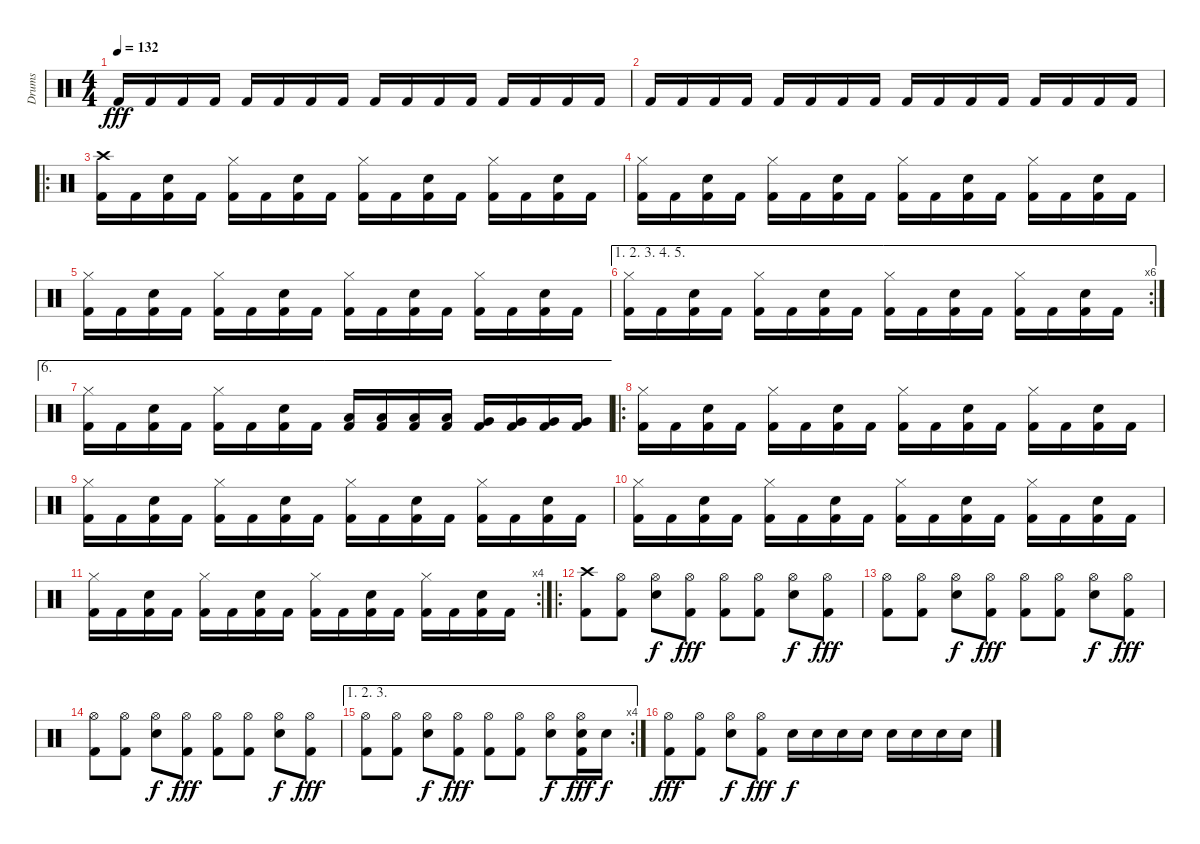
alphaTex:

\track ("Drums" "Drums") {instrument percussion}
\staff {score}
\articulation defaults
\ts (4 4)
\tempo 132
\clef neutral
\ks c "Kick (hit) 2".16{dy fff} "Kick (hit) 2".16 "Kick (hit) 2".16 "Kick (hit) 2".16 "Kick (hit) 2".16 "Kick (hit) 2".16 "Kick (hit) 2".16 "Kick (hit) 2".16 "Kick (hit) 2".16 "Kick (hit) 2".16 "Kick (hit) 2".16 "Kick (hit) 2".16 "Kick (hit) 2".16 "Kick (hit) 2".16 "Kick (hit) 2".16 "Kick (hit) 2".16
|
"Kick (hit) 2".16 "Kick (hit) 2".16 "Kick (hit) 2".16 "Kick (hit) 2".16 "Kick (hit) 2".16 "Kick (hit) 2".16 "Kick (hit) 2".16 "Kick (hit) 2".16 "Kick (hit) 2".16 "Kick (hit) 2".16 "Kick (hit) 2".16 "Kick (hit) 2".16 "Kick (hit) 2".16 "Kick (hit) 2".16 "Kick (hit) 2".16 "Kick (hit) 2".16 |
\ro
("Crash high (hit)" "Kick (hit) 2").16 "Kick (hit) 2".16 ("Snare (hit) 2" "Kick (hit) 2").16 "Kick (hit) 2".16 ("Hi-Hat (closed)" "Kick (hit) 2").16 "Kick (hit) 2".16 ("Snare (hit) 2" "Kick (hit) 2").16 "Kick (hit) 2".16 ("Hi-Hat (closed)" "Kick (hit) 2").16 "Kick (hit) 2".16 ("Snare (hit) 2" "Kick (hit) 2").16 "Kick (hit) 2".16 ("Hi-Hat (closed)" "Kick (hit) 2").16 "Kick (hit) 2".16 ("Snare (hit) 2" "Kick (hit) 2").16 "Kick (hit) 2".16 |
("Hi-Hat (closed)" "Kick (hit) 2").16 "Kick (hit) 2".16 ("Snare (hit) 2" "Kick (hit) 2").16 "Kick (hit) 2".16 ("Hi-Hat (closed)" "Kick (hit) 2").16 "Kick (hit) 2".16 ("Snare (hit) 2" "Kick (hit) 2").16 "Kick (hit) 2".16 ("Hi-Hat (closed)" "Kick (hit) 2").16 "Kick (hit) 2".16 ("Snare (hit) 2" "Kick (hit) 2").16 "Kick (hit) 2".16 ("Hi-Hat (closed)" "Kick (hit) 2").16 "Kick (hit) 2".16 ("Snare (hit) 2" "Kick (hit) 2").16 "Kick (hit) 2".16 |
("Hi-Hat (closed)" "Kick (hit) 2").16 "Kick (hit) 2".16 ("Snare (hit) 2" "Kick (hit) 2").16 "Kick (hit) 2".16 ("Hi-Hat (closed)" "Kick (hit) 2").16 "Kick (hit) 2".16 ("Snare (hit) 2" "Kick (hit) 2").16 "Kick (hit) 2".16 ("Hi-Hat (closed)" "Kick (hit) 2").16 "Kick (hit) 2".16 ("Snare (hit) 2" "Kick (hit) 2").16 "Kick (hit) 2".16 ("Hi-Hat (closed)" "Kick (hit) 2").16 "Kick (hit) 2".16 ("Snare (hit) 2" "Kick (hit) 2").16 "Kick (hit) 2".16 |
\ae (1 2 3 4 5)
\rc 6
("Hi-Hat (closed)" "Kick (hit) 2").16 "Kick (hit) 2".16 ("Snare (hit) 2" "Kick (hit) 2").16 "Kick (hit) 2".16 ("Hi-Hat (closed)" "Kick (hit) 2").16 "Kick (hit) 2".16 ("Snare (hit) 2" "Kick (hit) 2").16 "Kick (hit) 2".16 ("Hi-Hat (closed)" "Kick (hit) 2").16 "Kick (hit) 2".16 ("Snare (hit) 2" "Kick (hit) 2").16 "Kick (hit) 2".16 ("Hi-Hat (closed)" "Kick (hit) 2").16 "Kick (hit) 2".16 ("Snare (hit) 2" "Kick (hit) 2").16 "Kick (hit) 2".16 |
\ae 6
("Hi-Hat (closed)" "Kick (hit) 2").16 "Kick (hit) 2".16 ("Snare (hit) 2" "Kick (hit) 2").16 "Kick (hit) 2".16 ("Hi-Hat (closed)" "Kick (hit) 2").16 "Kick (hit) 2".16 ("Snare (hit) 2" "Kick (hit) 2").16 "Kick (hit) 2".16 ("Low Tom (hit)" "Kick (hit) 2").16 ("Low Tom (hit)" "Kick (hit) 2").16 ("Low Tom (hit)" "Kick (hit) 2").16 ("Low Tom (hit)" "Kick (hit) 2").16 ("Very Low Tom (hit)" "Kick (hit) 2").16 ("Very Low Tom (hit)" "Kick (hit) 2").16 ("Very Low Tom (hit)" "Kick (hit) 2").16 ("Very Low Tom (hit)" "Kick (hit) 2").16 |
\ro
("Hi-Hat (closed)" "Kick (hit) 2").16 "Kick (hit) 2".16 ("Snare (hit) 2" "Kick (hit) 2").16 "Kick (hit) 2".16 ("Hi-Hat (closed)" "Kick (hit) 2").16 "Kick (hit) 2".16 ("Snare (hit) 2" "Kick (hit) 2").16 "Kick (hit) 2".16 ("Hi-Hat (closed)" "Kick (hit) 2").16 "Kick (hit) 2".16 ("Snare (hit) 2" "Kick (hit) 2").16 "Kick (hit) 2".16 ("Hi-Hat (closed)" "Kick (hit) 2").16 "Kick (hit) 2".16 ("Snare (hit) 2" "Kick (hit) 2").16 "Kick (hit) 2".16 |
("Hi-Hat (closed)" "Kick (hit) 2").16 "Kick (hit) 2".16 ("Snare (hit) 2" "Kick (hit) 2").16 "Kick (hit) 2".16 ("Hi-Hat (closed)" "Kick (hit) 2").16 "Kick (hit) 2".16 ("Snare (hit) 2" "Kick (hit) 2").16 "Kick (hit) 2".16 ("Hi-Hat (closed)" "Kick (hit) 2").16 "Kick (hit) 2".16 ("Snare (hit) 2" "Kick (hit) 2").16 "Kick (hit) 2".16 ("Hi-Hat (closed)" "Kick (hit) 2").16 "Kick (hit) 2".16 ("Snare (hit) 2" "Kick (hit) 2").16 "Kick (hit) 2".16 |
("Hi-Hat (closed)" "Kick (hit) 2").16 "Kick (hit) 2".16 ("Snare (hit) 2" "Kick (hit) 2").16 "Kick (hit) 2".16 ("Hi-Hat (closed)" "Kick (hit) 2").16 "Kick (hit) 2".16 ("Snare (hit) 2" "Kick (hit) 2").16 "Kick (hit) 2".16 ("Hi-Hat (closed)" "Kick (hit) 2").16 "Kick (hit) 2".16 ("Snare (hit) 2" "Kick (hit) 2").16 "Kick (hit) 2".16 ("Hi-Hat (closed)" "Kick (hit) 2").16 "Kick (hit) 2".16 ("Snare (hit) 2" "Kick (hit) 2").16 "Kick (hit) 2".16 |
\rc 4
("Hi-Hat (closed)" "Kick (hit) 2").16 "Kick (hit) 2".16 ("Snare (hit) 2" "Kick (hit) 2").16 "Kick (hit) 2".16 ("Hi-Hat (closed)" "Kick (hit) 2").16 "Kick (hit) 2".16 ("Snare (hit) 2" "Kick (hit) 2").16 "Kick (hit) 2".16 ("Hi-Hat (closed)" "Kick (hit) 2").16 "Kick (hit) 2".16 ("Snare (hit) 2" "Kick (hit) 2").16 "Kick (hit) 2".16 ("Hi-Hat (closed)" "Kick (hit) 2").16 "Kick (hit) 2".16 ("Snare (hit) 2" "Kick (hit) 2").16 "Kick (hit) 2".16 |
\ro
("Crash high (hit)" "Kick (hit) 2").8 ("Hi-Hat (open)" "Kick (hit) 2").8 ("Hi-Hat (open)" "Snare (hit) 2").8{dy f} ("Hi-Hat (open)" "Kick (hit) 2").8{dy fff} ("Hi-Hat (open)" "Kick (hit) 2").8 ("Hi-Hat (open)" "Kick (hit) 2").8 ("Hi-Hat (open)" "Snare (hit) 2").8{dy f} ("Hi-Hat (open)" "Kick (hit) 2").8{dy fff} |
("Hi-Hat (open)" "Kick (hit) 2").8 ("Hi-Hat (open)" "Kick (hit) 2").8 ("Hi-Hat (open)" "Snare (hit) 2").8{dy f} ("Hi-Hat (open)" "Kick (hit) 2").8{dy fff} ("Hi-Hat (open)" "Kick (hit) 2").8 ("Hi-Hat (open)" "Kick (hit) 2").8 ("Hi-Hat (open)" "Snare (hit) 2").8{dy f} ("Hi-Hat (open)" "Kick (hit) 2").8{dy fff} |
("Hi-Hat (open)" "Kick (hit) 2").8 ("Hi-Hat (open)" "Kick (hit) 2").8 ("Hi-Hat (open)" "Snare (hit) 2").8{dy f} ("Hi-Hat (open)" "Kick (hit) 2").8{dy fff} ("Hi-Hat (open)" "Kick (hit) 2").8 ("Hi-Hat (open)" "Kick (hit) 2").8 ("Hi-Hat (open)" "Snare (hit) 2").8{dy f} ("Hi-Hat (open)" "Kick (hit) 2").8{dy fff} |
\ae (1 2 3)
\rc 4
("Hi-Hat (open)" "Kick (hit) 2").8 ("Hi-Hat (open)" "Kick (hit) 2").8 ("Hi-Hat (open)" "Snare (hit) 2").8{dy f} ("Hi-Hat (open)" "Kick (hit) 2").8{dy fff} ("Hi-Hat (open)" "Kick (hit) 2").8 ("Hi-Hat (open)" "Kick (hit) 2").8 ("Hi-Hat (open)" "Snare (hit) 2").8{dy f} ("Hi-Hat (open)" "Snare (hit) 2" "Kick (hit) 2").16{dy fff} "Snare (hit) 2".16{dy f} |
("Hi-Hat (open)" "Kick (hit) 2").8{dy fff} ("Hi-Hat (open)" "Kick (hit) 2").8 ("Hi-Hat (open)" "Snare (hit) 2").8{dy f} ("Hi-Hat (open)" "Kick (hit) 2").8{dy fff} "Snare (hit) 2".16{dy f} "Snare (hit) 2".16 "Snare (hit) 2".16 "Snare (hit) 2".16 "Snare (hit) 2".16 "Snare (hit) 2".16 "Snare (hit) 2".16 "Snare (hit) 2".16
